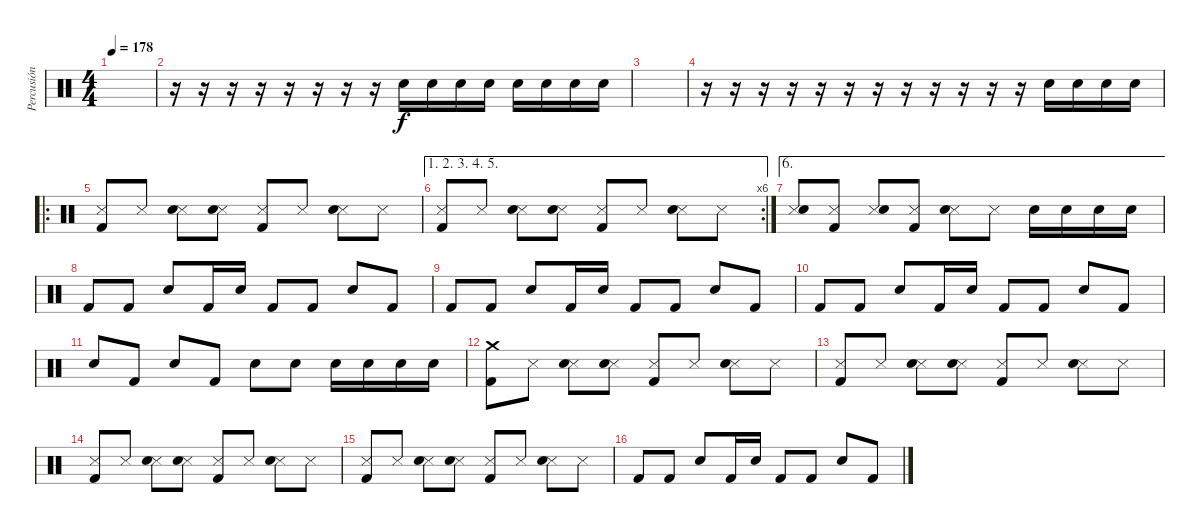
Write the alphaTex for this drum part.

\track ("Percusión" "Percusión") {instrument percussion}
\staff {score}
\articulation defaults
\ts (4 4)
\tempo 178
\clef neutral
\ks c
|
r.16 r.16 r.16 r.16 r.16 r.16 r.16 r.16 "Electric Snare (hit)".16 "Electric Snare (hit)".16 "Electric Snare (hit)".16 "Electric Snare (hit)".16 "Electric Snare (hit)".16 "Electric Snare (hit)".16 "Electric Snare (hit)".16 "Electric Snare (hit)".16 |
|
r.16 r.16 r.16 r.16 r.16 r.16 r.16 r.16 r.16 r.16 r.16 r.16 "Electric Snare (hit)".16 "Electric Snare (hit)".16 "Electric Snare (hit)".16 "Electric Snare (hit)".16 |
\ro
("Snare (side stick) 3" "Kick (hit) 2").8 "Snare (side stick) 3".8 ("Snare (side stick) 3" "Electric Snare (hit)").8 ("Snare (side stick) 3" "Electric Snare (hit)").8 ("Snare (side stick) 3" "Kick (hit) 2").8 "Snare (side stick) 3".8 ("Snare (side stick) 3" "Electric Snare (hit)").8 "Snare (side stick) 3".8 |
\ae (1 2 3 4 5)
\rc 6
("Snare (side stick) 3" "Kick (hit) 2").8 "Snare (side stick) 3".8 ("Snare (side stick) 3" "Electric Snare (hit)").8 ("Snare (side stick) 3" "Electric Snare (hit)").8 ("Snare (side stick) 3" "Kick (hit) 2").8 "Snare (side stick) 3".8 ("Snare (side stick) 3" "Electric Snare (hit)").8 "Snare (side stick) 3".8 |
\ae 6
("Snare (side stick) 3" "Electric Snare (hit)").8 ("Snare (side stick) 3" "Kick (hit) 2").8 ("Snare (side stick) 3" "Electric Snare (hit)").8 ("Snare (side stick) 3" "Kick (hit) 2").8 ("Snare (side stick) 3" "Electric Snare (hit)").8 "Snare (side stick) 3".8 "Electric Snare (hit)".16 "Electric Snare (hit)".16 "Electric Snare (hit)".16 "Electric Snare (hit)".16 |
"Kick (hit) 2".8 "Kick (hit) 2".8 "Electric Snare (hit)".8 "Kick (hit) 2".16 "Electric Snare (hit)".16 "Kick (hit) 2".8 "Kick (hit) 2".8 "Electric Snare (hit)".8 "Kick (hit) 2".8 |
"Kick (hit) 2".8 "Kick (hit) 2".8 "Electric Snare (hit)".8 "Kick (hit) 2".16 "Electric Snare (hit)".16 "Kick (hit) 2".8 "Kick (hit) 2".8 "Electric Snare (hit)".8 "Kick (hit) 2".8 |
"Kick (hit) 2".8 "Kick (hit) 2".8 "Electric Snare (hit)".8 "Kick (hit) 2".16 "Electric Snare (hit)".16 "Kick (hit) 2".8 "Kick (hit) 2".8 "Electric Snare (hit)".8 "Kick (hit) 2".8 |
"Electric Snare (hit)".8 "Kick (hit) 2".8 "Electric Snare (hit)".8 "Kick (hit) 2".8 "Electric Snare (hit)".8 "Electric Snare (hit)".8 "Electric Snare (hit)".16 "Electric Snare (hit)".16 "Electric Snare (hit)".16 "Electric Snare (hit)".16 |
("Crash medium (hit)" "Kick (hit) 2").8 "Snare (side stick) 3".8 ("Snare (side stick) 3" "Electric Snare (hit)").8 ("Snare (side stick) 3" "Electric Snare (hit)").8 ("Snare (side stick) 3" "Kick (hit) 2").8 "Snare (side stick) 3".8 ("Snare (side stick) 3" "Electric Snare (hit)").8 "Snare (side stick) 3".8 |
("Snare (side stick) 3" "Kick (hit) 2").8 "Snare (side stick) 3".8 ("Snare (side stick) 3" "Electric Snare (hit)").8 ("Snare (side stick) 3" "Electric Snare (hit)").8 ("Snare (side stick) 3" "Kick (hit) 2").8 "Snare (side stick) 3".8 ("Snare (side stick) 3" "Electric Snare (hit)").8 "Snare (side stick) 3".8 |
("Snare (side stick) 3" "Kick (hit) 2").8 "Snare (side stick) 3".8 ("Snare (side stick) 3" "Electric Snare (hit)").8 ("Snare (side stick) 3" "Electric Snare (hit)").8 ("Snare (side stick) 3" "Kick (hit) 2").8 "Snare (side stick) 3".8 ("Snare (side stick) 3" "Electric Snare (hit)").8 "Snare (side stick) 3".8 |
("Snare (side stick) 3" "Kick (hit) 2").8 "Snare (side stick) 3".8 ("Snare (side stick) 3" "Electric Snare (hit)").8 ("Snare (side stick) 3" "Electric Snare (hit)").8 ("Snare (side stick) 3" "Kick (hit) 2").8 "Snare (side stick) 3".8 ("Snare (side stick) 3" "Electric Snare (hit)").8 "Snare (side stick) 3".8 |
"Kick (hit) 2".8 "Kick (hit) 2".8 "Electric Snare (hit)".8 "Kick (hit) 2".16 "Electric Snare (hit)".16 "Kick (hit) 2".8 "Kick (hit) 2".8 "Electric Snare (hit)".8 "Kick (hit) 2".8
